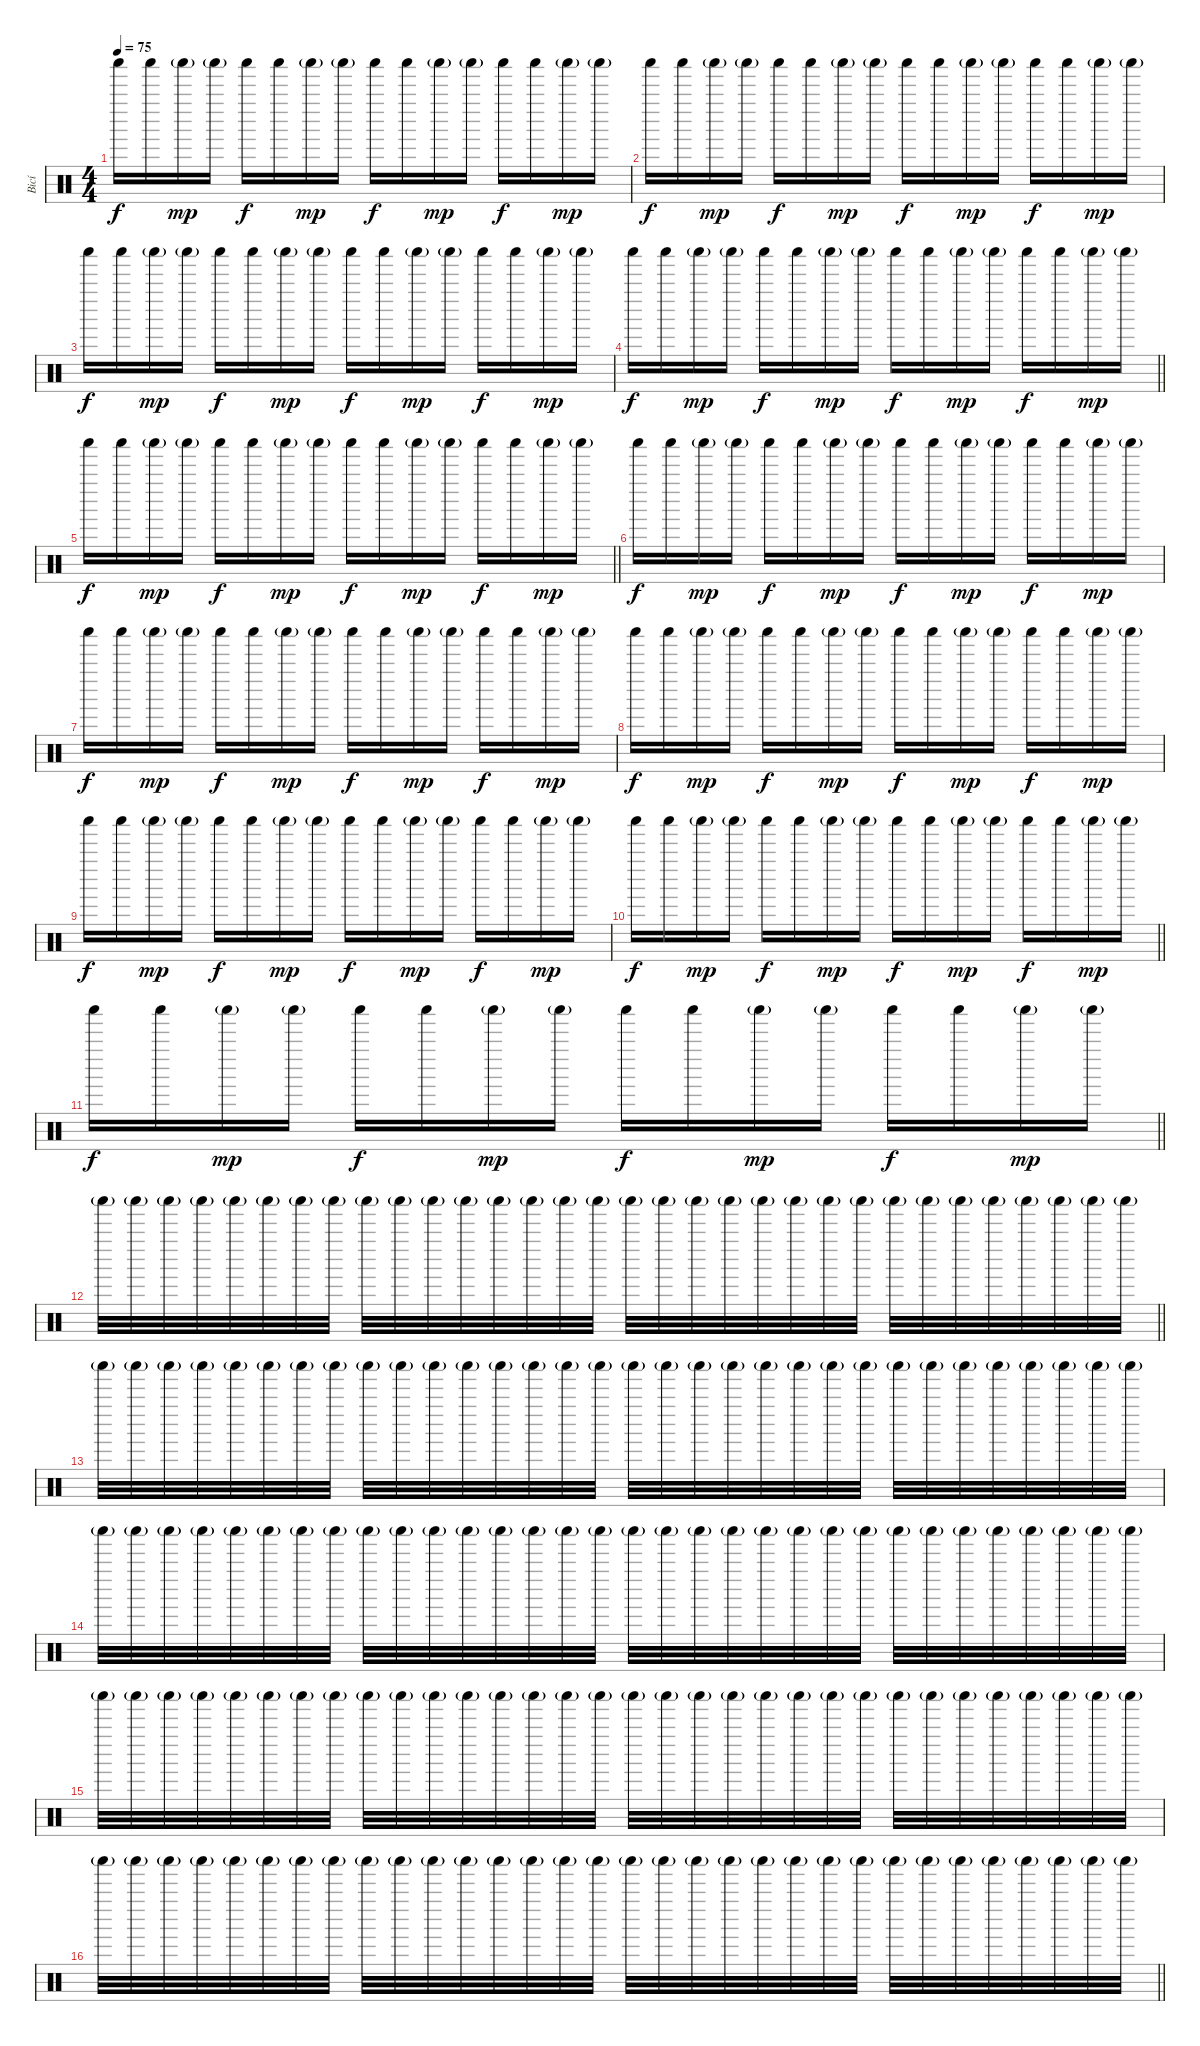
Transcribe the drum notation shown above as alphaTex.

\track ("Bicí" "Bicí") {instrument percussion}
\staff {score}
\articulation defaults
\ts (4 4)
\tempo 75
\clef neutral
\ks c "Shaker (hit)".16{dy f} "Shaker (hit)".16 "Shaker (hit)"{g}.16{dy mp} "Shaker (hit)"{g}.16 "Shaker (hit)".16{dy f} "Shaker (hit)".16 "Shaker (hit)"{g}.16{dy mp} "Shaker (hit)"{g}.16 "Shaker (hit)".16{dy f} "Shaker (hit)".16 "Shaker (hit)"{g}.16{dy mp} "Shaker (hit)"{g}.16 "Shaker (hit)".16{dy f} "Shaker (hit)".16 "Shaker (hit)"{g}.16{dy mp} "Shaker (hit)"{g}.16
|
"Shaker (hit)".16{dy f} "Shaker (hit)".16 "Shaker (hit)"{g}.16{dy mp} "Shaker (hit)"{g}.16 "Shaker (hit)".16{dy f} "Shaker (hit)".16 "Shaker (hit)"{g}.16{dy mp} "Shaker (hit)"{g}.16 "Shaker (hit)".16{dy f} "Shaker (hit)".16 "Shaker (hit)"{g}.16{dy mp} "Shaker (hit)"{g}.16 "Shaker (hit)".16{dy f} "Shaker (hit)".16 "Shaker (hit)"{g}.16{dy mp} "Shaker (hit)"{g}.16 |
"Shaker (hit)".16{dy f} "Shaker (hit)".16 "Shaker (hit)"{g}.16{dy mp} "Shaker (hit)"{g}.16 "Shaker (hit)".16{dy f} "Shaker (hit)".16 "Shaker (hit)"{g}.16{dy mp} "Shaker (hit)"{g}.16 "Shaker (hit)".16{dy f} "Shaker (hit)".16 "Shaker (hit)"{g}.16{dy mp} "Shaker (hit)"{g}.16 "Shaker (hit)".16{dy f} "Shaker (hit)".16 "Shaker (hit)"{g}.16{dy mp} "Shaker (hit)"{g}.16 |
\barLineRight lightlight "Shaker (hit)".16{dy f} "Shaker (hit)".16 "Shaker (hit)"{g}.16{dy mp} "Shaker (hit)"{g}.16 "Shaker (hit)".16{dy f} "Shaker (hit)".16 "Shaker (hit)"{g}.16{dy mp} "Shaker (hit)"{g}.16 "Shaker (hit)".16{dy f} "Shaker (hit)".16 "Shaker (hit)"{g}.16{dy mp} "Shaker (hit)"{g}.16 "Shaker (hit)".16{dy f} "Shaker (hit)".16 "Shaker (hit)"{g}.16{dy mp} "Shaker (hit)"{g}.16
|
\section ("" "")
\barLineRight lightlight "Shaker (hit)".16{dy f} "Shaker (hit)".16 "Shaker (hit)"{g}.16{dy mp} "Shaker (hit)"{g}.16 "Shaker (hit)".16{dy f} "Shaker (hit)".16 "Shaker (hit)"{g}.16{dy mp} "Shaker (hit)"{g}.16 "Shaker (hit)".16{dy f} "Shaker (hit)".16 "Shaker (hit)"{g}.16{dy mp} "Shaker (hit)"{g}.16 "Shaker (hit)".16{dy f} "Shaker (hit)".16 "Shaker (hit)"{g}.16{dy mp} "Shaker (hit)"{g}.16
|
"Shaker (hit)".16{dy f} "Shaker (hit)".16 "Shaker (hit)"{g}.16{dy mp} "Shaker (hit)"{g}.16 "Shaker (hit)".16{dy f} "Shaker (hit)".16 "Shaker (hit)"{g}.16{dy mp} "Shaker (hit)"{g}.16 "Shaker (hit)".16{dy f} "Shaker (hit)".16 "Shaker (hit)"{g}.16{dy mp} "Shaker (hit)"{g}.16 "Shaker (hit)".16{dy f} "Shaker (hit)".16 "Shaker (hit)"{g}.16{dy mp} "Shaker (hit)"{g}.16 |
"Shaker (hit)".16{dy f} "Shaker (hit)".16 "Shaker (hit)"{g}.16{dy mp} "Shaker (hit)"{g}.16 "Shaker (hit)".16{dy f} "Shaker (hit)".16 "Shaker (hit)"{g}.16{dy mp} "Shaker (hit)"{g}.16 "Shaker (hit)".16{dy f} "Shaker (hit)".16 "Shaker (hit)"{g}.16{dy mp} "Shaker (hit)"{g}.16 "Shaker (hit)".16{dy f} "Shaker (hit)".16 "Shaker (hit)"{g}.16{dy mp} "Shaker (hit)"{g}.16 |
"Shaker (hit)".16{dy f} "Shaker (hit)".16 "Shaker (hit)"{g}.16{dy mp} "Shaker (hit)"{g}.16 "Shaker (hit)".16{dy f} "Shaker (hit)".16 "Shaker (hit)"{g}.16{dy mp} "Shaker (hit)"{g}.16 "Shaker (hit)".16{dy f} "Shaker (hit)".16 "Shaker (hit)"{g}.16{dy mp} "Shaker (hit)"{g}.16 "Shaker (hit)".16{dy f} "Shaker (hit)".16 "Shaker (hit)"{g}.16{dy mp} "Shaker (hit)"{g}.16 |
"Shaker (hit)".16{dy f} "Shaker (hit)".16 "Shaker (hit)"{g}.16{dy mp} "Shaker (hit)"{g}.16 "Shaker (hit)".16{dy f} "Shaker (hit)".16 "Shaker (hit)"{g}.16{dy mp} "Shaker (hit)"{g}.16 "Shaker (hit)".16{dy f} "Shaker (hit)".16 "Shaker (hit)"{g}.16{dy mp} "Shaker (hit)"{g}.16 "Shaker (hit)".16{dy f} "Shaker (hit)".16 "Shaker (hit)"{g}.16{dy mp} "Shaker (hit)"{g}.16 |
\barLineRight lightlight "Shaker (hit)".16{dy f} "Shaker (hit)".16 "Shaker (hit)"{g}.16{dy mp} "Shaker (hit)"{g}.16 "Shaker (hit)".16{dy f} "Shaker (hit)".16 "Shaker (hit)"{g}.16{dy mp} "Shaker (hit)"{g}.16 "Shaker (hit)".16{dy f} "Shaker (hit)".16 "Shaker (hit)"{g}.16{dy mp} "Shaker (hit)"{g}.16 "Shaker (hit)".16{dy f} "Shaker (hit)".16 "Shaker (hit)"{g}.16{dy mp} "Shaker (hit)"{g}.16
|
\barLineRight lightlight "Shaker (hit)".16{dy f} "Shaker (hit)".16 "Shaker (hit)"{g}.16{dy mp} "Shaker (hit)"{g}.16 "Shaker (hit)".16{dy f} "Shaker (hit)".16 "Shaker (hit)"{g}.16{dy mp} "Shaker (hit)"{g}.16 "Shaker (hit)".16{dy f} "Shaker (hit)".16 "Shaker (hit)"{g}.16{dy mp} "Shaker (hit)"{g}.16 "Shaker (hit)".16{dy f} "Shaker (hit)".16 "Shaker (hit)"{g}.16{dy mp} "Shaker (hit)"{g}.16
|
\section ("" "")
\barLineRight lightlight "Shaker (hit)"{g}.32 "Shaker (hit)"{g}.32 "Shaker (hit)"{g}.32 "Shaker (hit)"{g}.32 "Shaker (hit)"{g}.32 "Shaker (hit)"{g}.32 "Shaker (hit)"{g}.32 "Shaker (hit)"{g}.32 "Shaker (hit)"{g}.32 "Shaker (hit)"{g}.32 "Shaker (hit)"{g}.32 "Shaker (hit)"{g}.32 "Shaker (hit)"{g}.32 "Shaker (hit)"{g}.32 "Shaker (hit)"{g}.32 "Shaker (hit)"{g}.32 "Shaker (hit)"{g}.32 "Shaker (hit)"{g}.32 "Shaker (hit)"{g}.32 "Shaker (hit)"{g}.32 "Shaker (hit)"{g}.32 "Shaker (hit)"{g}.32 "Shaker (hit)"{g}.32 "Shaker (hit)"{g}.32 "Shaker (hit)"{g}.32 "Shaker (hit)"{g}.32 "Shaker (hit)"{g}.32 "Shaker (hit)"{g}.32 "Shaker (hit)"{g}.32 "Shaker (hit)"{g}.32 "Shaker (hit)"{g}.32 "Shaker (hit)"{g}.32
|
"Shaker (hit)"{g}.32 "Shaker (hit)"{g}.32 "Shaker (hit)"{g}.32 "Shaker (hit)"{g}.32 "Shaker (hit)"{g}.32 "Shaker (hit)"{g}.32 "Shaker (hit)"{g}.32 "Shaker (hit)"{g}.32 "Shaker (hit)"{g}.32 "Shaker (hit)"{g}.32 "Shaker (hit)"{g}.32 "Shaker (hit)"{g}.32 "Shaker (hit)"{g}.32 "Shaker (hit)"{g}.32 "Shaker (hit)"{g}.32 "Shaker (hit)"{g}.32 "Shaker (hit)"{g}.32 "Shaker (hit)"{g}.32 "Shaker (hit)"{g}.32 "Shaker (hit)"{g}.32 "Shaker (hit)"{g}.32 "Shaker (hit)"{g}.32 "Shaker (hit)"{g}.32 "Shaker (hit)"{g}.32 "Shaker (hit)"{g}.32 "Shaker (hit)"{g}.32 "Shaker (hit)"{g}.32 "Shaker (hit)"{g}.32 "Shaker (hit)"{g}.32 "Shaker (hit)"{g}.32 "Shaker (hit)"{g}.32 "Shaker (hit)"{g}.32 |
"Shaker (hit)"{g}.32 "Shaker (hit)"{g}.32 "Shaker (hit)"{g}.32 "Shaker (hit)"{g}.32 "Shaker (hit)"{g}.32 "Shaker (hit)"{g}.32 "Shaker (hit)"{g}.32 "Shaker (hit)"{g}.32 "Shaker (hit)"{g}.32 "Shaker (hit)"{g}.32 "Shaker (hit)"{g}.32 "Shaker (hit)"{g}.32 "Shaker (hit)"{g}.32 "Shaker (hit)"{g}.32 "Shaker (hit)"{g}.32 "Shaker (hit)"{g}.32 "Shaker (hit)"{g}.32 "Shaker (hit)"{g}.32 "Shaker (hit)"{g}.32 "Shaker (hit)"{g}.32 "Shaker (hit)"{g}.32 "Shaker (hit)"{g}.32 "Shaker (hit)"{g}.32 "Shaker (hit)"{g}.32 "Shaker (hit)"{g}.32 "Shaker (hit)"{g}.32 "Shaker (hit)"{g}.32 "Shaker (hit)"{g}.32 "Shaker (hit)"{g}.32 "Shaker (hit)"{g}.32 "Shaker (hit)"{g}.32 "Shaker (hit)"{g}.32 |
"Shaker (hit)"{g}.32 "Shaker (hit)"{g}.32 "Shaker (hit)"{g}.32 "Shaker (hit)"{g}.32 "Shaker (hit)"{g}.32 "Shaker (hit)"{g}.32 "Shaker (hit)"{g}.32 "Shaker (hit)"{g}.32 "Shaker (hit)"{g}.32 "Shaker (hit)"{g}.32 "Shaker (hit)"{g}.32 "Shaker (hit)"{g}.32 "Shaker (hit)"{g}.32 "Shaker (hit)"{g}.32 "Shaker (hit)"{g}.32 "Shaker (hit)"{g}.32 "Shaker (hit)"{g}.32 "Shaker (hit)"{g}.32 "Shaker (hit)"{g}.32 "Shaker (hit)"{g}.32 "Shaker (hit)"{g}.32 "Shaker (hit)"{g}.32 "Shaker (hit)"{g}.32 "Shaker (hit)"{g}.32 "Shaker (hit)"{g}.32 "Shaker (hit)"{g}.32 "Shaker (hit)"{g}.32 "Shaker (hit)"{g}.32 "Shaker (hit)"{g}.32 "Shaker (hit)"{g}.32 "Shaker (hit)"{g}.32 "Shaker (hit)"{g}.32 |
\barLineRight lightlight "Shaker (hit)"{g}.32 "Shaker (hit)"{g}.32 "Shaker (hit)"{g}.32 "Shaker (hit)"{g}.32 "Shaker (hit)"{g}.32 "Shaker (hit)"{g}.32 "Shaker (hit)"{g}.32 "Shaker (hit)"{g}.32 "Shaker (hit)"{g}.32 "Shaker (hit)"{g}.32 "Shaker (hit)"{g}.32 "Shaker (hit)"{g}.32 "Shaker (hit)"{g}.32 "Shaker (hit)"{g}.32 "Shaker (hit)"{g}.32 "Shaker (hit)"{g}.32 "Shaker (hit)"{g}.32 "Shaker (hit)"{g}.32 "Shaker (hit)"{g}.32 "Shaker (hit)"{g}.32 "Shaker (hit)"{g}.32 "Shaker (hit)"{g}.32 "Shaker (hit)"{g}.32 "Shaker (hit)"{g}.32 "Shaker (hit)"{g}.32 "Shaker (hit)"{g}.32 "Shaker (hit)"{g}.32 "Shaker (hit)"{g}.32 "Shaker (hit)"{g}.32 "Shaker (hit)"{g}.32 "Shaker (hit)"{g}.32 "Shaker (hit)"{g}.32
